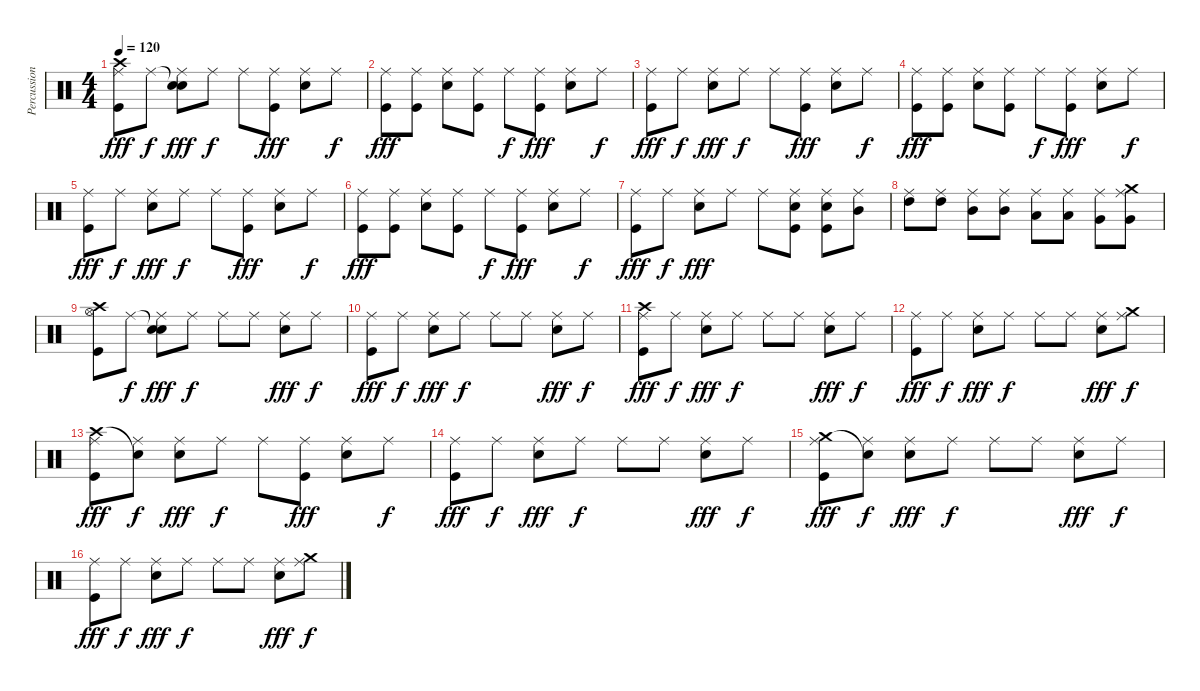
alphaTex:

\track ("Percussion" "Percussion") {instrument percussion}
\staff {score}
\articulation defaults
\ts (4 4)
\tempo 120
\clef neutral
\ks c
("Crash high (hit)" "Ride (middle)" "Kick (hit)").8{dy fff} "Ride (middle)".8{dy f} ("Snare (hit)"{t} "Ride (middle)" "Snare (hit) 2").8{dy fff} "Ride (middle)".8{dy f} "Ride (middle)".8 ("Ride (middle)" "Kick (hit)").8{dy fff} ("Ride (middle)" "Snare (hit) 2").8 "Ride (middle)".8{dy f} |
("Ride (middle)" "Kick (hit)").8{dy fff} ("Ride (middle)" "Kick (hit)").8 ("Ride (middle)" "Snare (hit) 2").8 ("Ride (middle)" "Kick (hit)").8 "Ride (middle)".8{dy f} ("Ride (middle)" "Kick (hit)").8{dy fff} ("Ride (middle)" "Snare (hit) 2").8 "Ride (middle)".8{dy f} |
("Ride (middle)" "Kick (hit)").8{dy fff} "Ride (middle)".8{dy f} ("Ride (middle)" "Snare (hit) 2").8{dy fff} "Ride (middle)".8{dy f} "Ride (middle)".8 ("Ride (middle)" "Kick (hit)").8{dy fff} ("Ride (middle)" "Snare (hit) 2").8 "Ride (middle)".8{dy f} |
("Ride (middle)" "Kick (hit)").8{dy fff} ("Ride (middle)" "Kick (hit)").8 ("Ride (middle)" "Snare (hit) 2").8 ("Ride (middle)" "Kick (hit)").8 "Ride (middle)".8{dy f} ("Ride (middle)" "Kick (hit)").8{dy fff} ("Ride (middle)" "Snare (hit) 2").8 "Ride (middle)".8{dy f} |
("Ride (middle)" "Kick (hit)").8{dy fff} "Ride (middle)".8{dy f} ("Ride (middle)" "Snare (hit) 2").8{dy fff} "Ride (middle)".8{dy f} "Ride (middle)".8 ("Ride (middle)" "Kick (hit)").8{dy fff} ("Ride (middle)" "Snare (hit) 2").8 "Ride (middle)".8{dy f} |
("Ride (middle)" "Kick (hit)").8{dy fff} ("Ride (middle)" "Kick (hit)").8 ("Ride (middle)" "Snare (hit) 2").8 ("Ride (middle)" "Kick (hit)").8 "Ride (middle)".8{dy f} ("Ride (middle)" "Kick (hit)").8{dy fff} ("Ride (middle)" "Snare (hit) 2").8 "Ride (middle)".8{dy f} |
("Ride (middle)" "Kick (hit)").8{dy fff} "Ride (middle)".8{dy f} ("Ride (middle)" "Snare (hit) 2").8{dy fff} "Ride (middle)".8 "Ride (middle)".8 ("Ride (middle)" "Kick (hit)" "Snare (hit) 2").8 ("Ride (middle)" "Kick (hit)" "Snare (hit) 2").8 ("Ride (middle)" "Mid Tom (hit)").8 |
("Ride (middle)" "High Tom (hit)").8 ("Ride (middle)" "High Tom (hit)").8 ("Ride (middle)" "Mid Tom (hit)").8 ("Ride (middle)" "Mid Tom (hit)").8 ("Ride (middle)" "Low Tom (hit)").8 ("Ride (middle)" "Low Tom (hit)").8 ("Ride (middle)" "Very Low Tom (hit)").8 ("Crash medium (hit)" "Ride (middle)" "Very Low Tom (hit)").8 |
("Crash high (hit)" "Hi-Hat (open)" "Kick (hit)").8 "Ride (middle)".8{dy f} ("Snare (hit)"{t} "Ride (middle)" "Snare (hit) 2").8{dy fff} "Ride (middle)".8{dy f} "Ride (middle)".8 "Ride (middle)".8 ("Ride (middle)" "Snare (hit) 2").8{dy fff} "Ride (middle)".8{dy f} |
("Ride (middle)" "Kick (hit)").8{dy fff} "Ride (middle)".8{dy f} ("Ride (middle)" "Snare (hit) 2").8{dy fff} "Ride (middle)".8{dy f} "Ride (middle)".8 "Ride (middle)".8 ("Ride (middle)" "Snare (hit) 2").8{dy fff} "Ride (middle)".8{dy f} |
("Crash high (hit)" "Ride (middle)" "Kick (hit)").8{dy fff} "Ride (middle)".8{dy f} ("Ride (middle)" "Snare (hit) 2").8{dy fff} "Ride (middle)".8{dy f} "Ride (middle)".8 "Ride (middle)".8 ("Ride (middle)" "Snare (hit) 2").8{dy fff} "Ride (middle)".8{dy f} |
("Ride (middle)" "Kick (hit)").8{dy fff} "Ride (middle)".8{dy f} ("Ride (middle)" "Snare (hit) 2").8{dy fff} "Ride (middle)".8{dy f} "Ride (middle)".8 "Ride (middle)".8 ("Ride (middle)" "Snare (hit) 2").8{dy fff} ("Crash medium (hit)" "Ride (middle)").8{dy f} |
("Crash high (hit)" "Ride (middle)" "Kick (hit)").8{dy fff} ("Snare (hit)"{t} "Ride (middle)").8{dy f} ("Ride (middle)" "Snare (hit) 2").8{dy fff} "Ride (middle)".8{dy f} "Ride (middle)".8 ("Ride (middle)" "Kick (hit)").8{dy fff} ("Ride (middle)" "Snare (hit) 2").8 "Ride (middle)".8{dy f} |
("Ride (middle)" "Kick (hit)").8{dy fff} "Ride (middle)".8{dy f} ("Ride (middle)" "Snare (hit) 2").8{dy fff} "Ride (middle)".8{dy f} "Ride (middle)".8 "Ride (middle)".8 ("Ride (middle)" "Snare (hit) 2").8{dy fff} "Ride (middle)".8{dy f} |
("Crash medium (hit)" "Ride (middle)" "Kick (hit)").8{dy fff} ("Snare (hit)"{t} "Ride (middle)").8{dy f} ("Ride (middle)" "Snare (hit) 2").8{dy fff} "Ride (middle)".8{dy f} "Ride (middle)".8 "Ride (middle)".8 ("Ride (middle)" "Snare (hit) 2").8{dy fff} "Ride (middle)".8{dy f} |
("Ride (middle)" "Kick (hit)").8{dy fff} "Ride (middle)".8{dy f} ("Ride (middle)" "Snare (hit) 2").8{dy fff} "Ride (middle)".8{dy f} "Ride (middle)".8 "Ride (middle)".8 ("Ride (middle)" "Snare (hit) 2").8{dy fff} ("Crash medium (hit)" "Ride (middle)").8{dy f}
